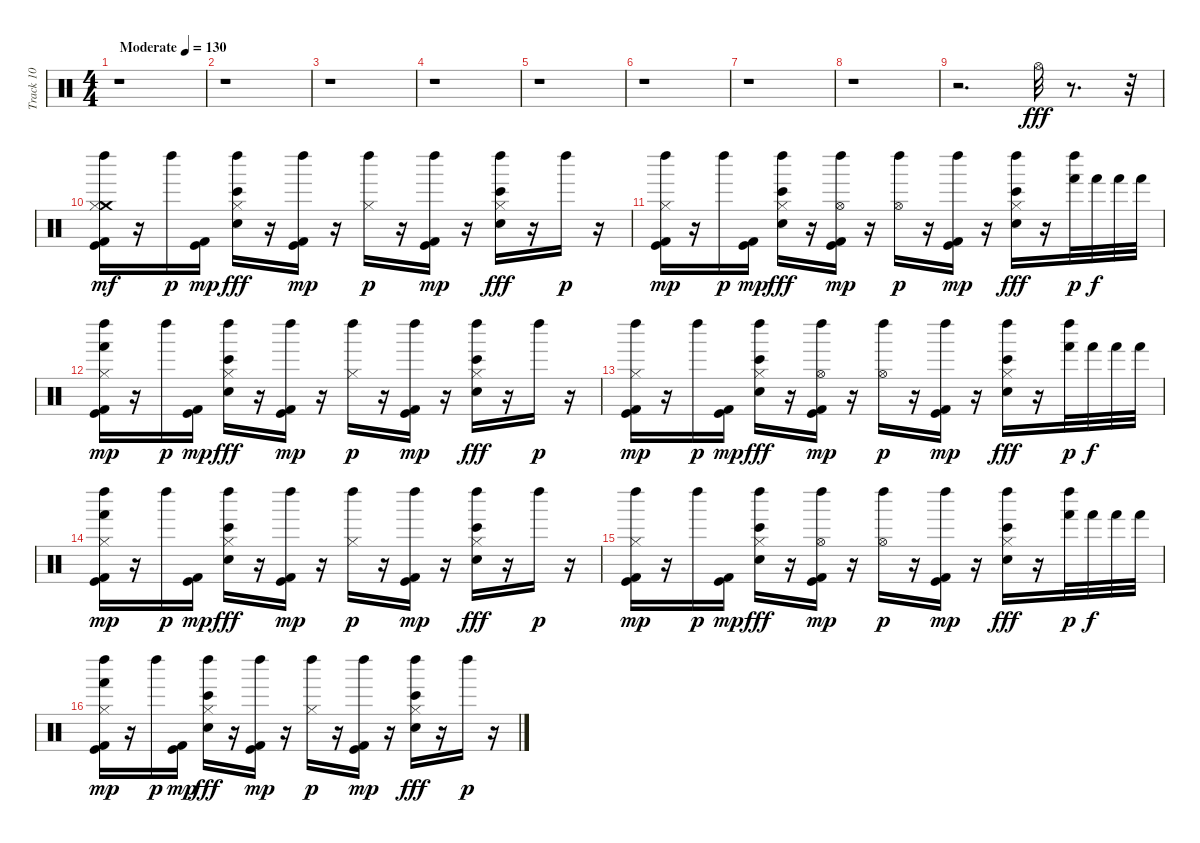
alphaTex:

\track ("Track 10" "Track 10") {instrument percussion}
\staff {score}
\articulation defaults
\ts (4 4)
\tempo (130 "Moderate")
\clef neutral
\ks c
r.1{dy fff} |
r.1 |
r.1 |
r.1 |
r.1 |
r.1 |
r.1 |
r.1 |
r.2{d} "Hi-Hat (open)".32 r.8{d} r.32 |
("Crash medium (hit)" "Left Maraca (hit)" "Kick (hit)" "Kick (hit) 2" "Hi-Hat (closed)").16{dy mf} r.16 "Left Maraca (hit)".16{dy p} ("Kick (hit) 2" "Kick (hit)").16{dy mp} ("Left Maraca (hit)" "Hi-Hat (closed)" "Hand Clap (hit)" "Bongo High (hit)").16{dy fff} r.16 ("Left Maraca (hit)" "Kick (hit) 2" "Kick (hit)").16{dy mp} r.16 ("Hi-Hat (closed)" "Left Maraca (hit)").16{dy p} r.16 ("Left Maraca (hit)" "Kick (hit) 2" "Kick (hit)").16{dy mp} r.16 ("Hi-Hat (closed)" "Left Maraca (hit)" "Hand Clap (hit)" "Bongo High (hit)").16{dy fff} r.16 "Left Maraca (hit)".16{dy p} r.16 |
("Hi-Hat (closed)" "Left Maraca (hit)" "Kick (hit) 2" "Kick (hit)").16{dy mp} r.16 "Left Maraca (hit)".16{dy p} ("Kick (hit) 2" "Kick (hit)").16{dy mp} ("Hi-Hat (closed)" "Left Maraca (hit)" "Hand Clap (hit)" "Bongo High (hit)").16{dy fff} r.16 ("Hi-Hat (open)" "Left Maraca (hit)" "Kick (hit) 2" "Kick (hit)").16{dy mp} r.16 ("Hi-Hat (open)" "Left Maraca (hit)").16{dy p} r.16 ("Left Maraca (hit)" "Kick (hit) 2" "Kick (hit)").16{dy mp} r.16 ("Hi-Hat (closed)" "Left Maraca (hit)" "Hand Clap (hit)" "Bongo High (hit)").16{dy fff} r.16 ("Hand (hit)" "Left Maraca (hit)").32{dy p} "Hand (hit)".32{dy f} "Hand (hit)".32 "Hand (hit)".32 |
("Hand (hit)" "Hi-Hat (closed)" "Left Maraca (hit)" "Kick (hit) 2" "Kick (hit)").16{dy mp} r.16 "Left Maraca (hit)".16{dy p} ("Kick (hit) 2" "Kick (hit)").16{dy mp} ("Hi-Hat (closed)" "Left Maraca (hit)" "Hand Clap (hit)" "Bongo High (hit)").16{dy fff} r.16 ("Left Maraca (hit)" "Kick (hit) 2" "Kick (hit)").16{dy mp} r.16 ("Hi-Hat (closed)" "Left Maraca (hit)").16{dy p} r.16 ("Left Maraca (hit)" "Kick (hit) 2" "Kick (hit)").16{dy mp} r.16 ("Hi-Hat (closed)" "Left Maraca (hit)" "Hand Clap (hit)" "Bongo High (hit)").16{dy fff} r.16 "Left Maraca (hit)".16{dy p} r.16 |
("Hi-Hat (closed)" "Left Maraca (hit)" "Kick (hit) 2" "Kick (hit)").16{dy mp} r.16 "Left Maraca (hit)".16{dy p} ("Kick (hit) 2" "Kick (hit)").16{dy mp} ("Hi-Hat (closed)" "Left Maraca (hit)" "Hand Clap (hit)" "Bongo High (hit)").16{dy fff} r.16 ("Hi-Hat (open)" "Left Maraca (hit)" "Kick (hit) 2" "Kick (hit)").16{dy mp} r.16 ("Hi-Hat (open)" "Left Maraca (hit)").16{dy p} r.16 ("Left Maraca (hit)" "Kick (hit) 2" "Kick (hit)").16{dy mp} r.16 ("Hi-Hat (closed)" "Left Maraca (hit)" "Hand Clap (hit)" "Bongo High (hit)").16{dy fff} r.16 ("Hand (hit)" "Left Maraca (hit)").32{dy p} "Hand (hit)".32{dy f} "Hand (hit)".32 "Hand (hit)".32 |
("Hand (hit)" "Hi-Hat (closed)" "Left Maraca (hit)" "Kick (hit) 2" "Kick (hit)").16{dy mp} r.16 "Left Maraca (hit)".16{dy p} ("Kick (hit) 2" "Kick (hit)").16{dy mp} ("Hi-Hat (closed)" "Left Maraca (hit)" "Hand Clap (hit)" "Bongo High (hit)").16{dy fff} r.16 ("Left Maraca (hit)" "Kick (hit) 2" "Kick (hit)").16{dy mp} r.16 ("Hi-Hat (closed)" "Left Maraca (hit)").16{dy p} r.16 ("Left Maraca (hit)" "Kick (hit) 2" "Kick (hit)").16{dy mp} r.16 ("Hi-Hat (closed)" "Left Maraca (hit)" "Hand Clap (hit)" "Bongo High (hit)").16{dy fff} r.16 "Left Maraca (hit)".16{dy p} r.16 |
("Hi-Hat (closed)" "Left Maraca (hit)" "Kick (hit) 2" "Kick (hit)").16{dy mp} r.16 "Left Maraca (hit)".16{dy p} ("Kick (hit) 2" "Kick (hit)").16{dy mp} ("Hi-Hat (closed)" "Left Maraca (hit)" "Hand Clap (hit)" "Bongo High (hit)").16{dy fff} r.16 ("Hi-Hat (open)" "Left Maraca (hit)" "Kick (hit) 2" "Kick (hit)").16{dy mp} r.16 ("Hi-Hat (open)" "Left Maraca (hit)").16{dy p} r.16 ("Left Maraca (hit)" "Kick (hit) 2" "Kick (hit)").16{dy mp} r.16 ("Hi-Hat (closed)" "Left Maraca (hit)" "Hand Clap (hit)" "Bongo High (hit)").16{dy fff} r.16 ("Hand (hit)" "Left Maraca (hit)").32{dy p} "Hand (hit)".32{dy f} "Hand (hit)".32 "Hand (hit)".32 |
("Hand (hit)" "Hi-Hat (closed)" "Left Maraca (hit)" "Kick (hit) 2" "Kick (hit)").16{dy mp} r.16 "Left Maraca (hit)".16{dy p} ("Kick (hit) 2" "Kick (hit)").16{dy mp} ("Hi-Hat (closed)" "Left Maraca (hit)" "Hand Clap (hit)" "Bongo High (hit)").16{dy fff} r.16 ("Left Maraca (hit)" "Kick (hit) 2" "Kick (hit)").16{dy mp} r.16 ("Hi-Hat (closed)" "Left Maraca (hit)").16{dy p} r.16 ("Left Maraca (hit)" "Kick (hit) 2" "Kick (hit)").16{dy mp} r.16 ("Hi-Hat (closed)" "Left Maraca (hit)" "Hand Clap (hit)" "Bongo High (hit)").16{dy fff} r.16 "Left Maraca (hit)".16{dy p} r.16
